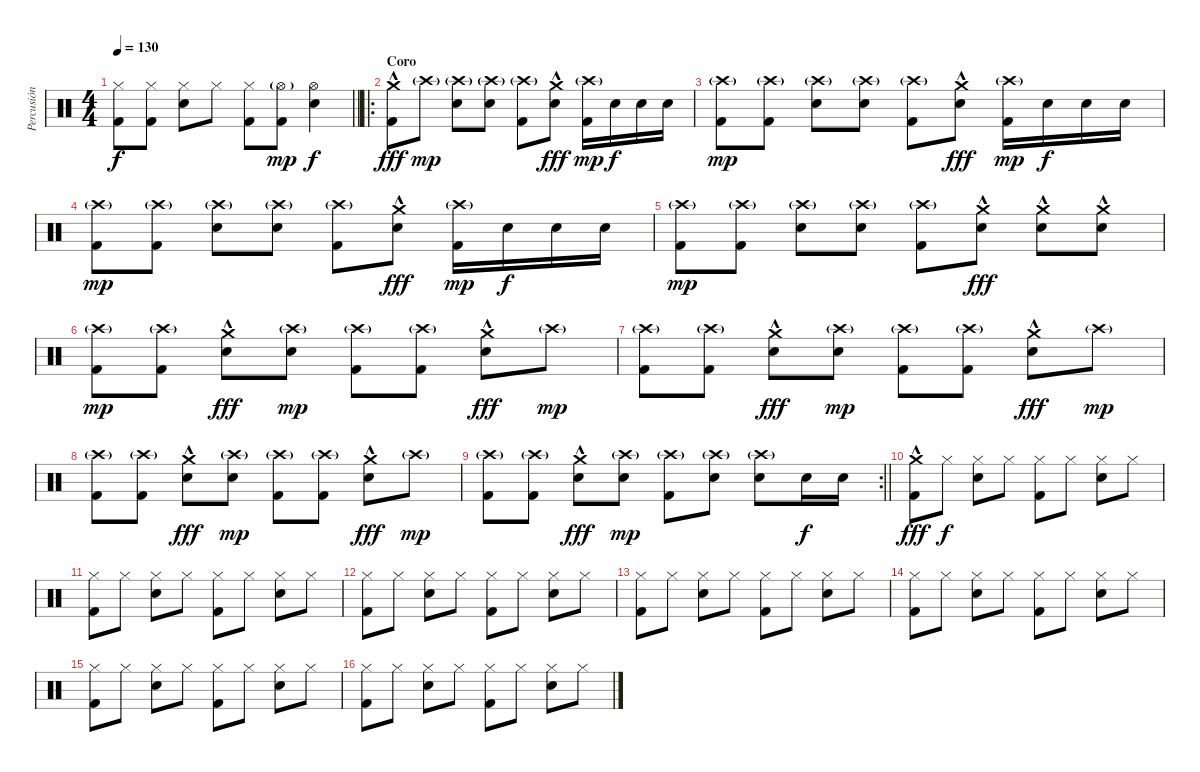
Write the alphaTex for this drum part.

\track ("Percusión" "Percusión") {instrument percussion}
\staff {score}
\articulation defaults
\ts (4 4)
\tempo 130
\clef neutral
\barLineRight lightlight
\ks c
("Hi-Hat (closed)" "Kick (hit) 2").8{dy f} ("Hi-Hat (closed)" "Kick (hit) 2").8 ("Hi-Hat (closed)" "Electric Snare (hit)").8 "Hi-Hat (closed)".8 ("Hi-Hat (closed)" "Kick (hit) 2").8 ("Hi-Hat (open)"{g} "Kick (hit) 2").8{dy mp} ("Hi-Hat (open)" "Electric Snare (hit)").4{dy f} |
\ro
\section ("" "Coro")
("Crash medium (hit)"{hac} "Kick (hit) 2").8{dy fff} "Crash high (hit)"{g}.8{dy mp} ("Crash high (hit)"{g} "Electric Snare (hit)").8 ("Crash high (hit)"{g} "Electric Snare (hit)").8 ("Crash high (hit)"{g} "Kick (hit) 2").8 ("Crash medium (hit)"{hac} "Electric Snare (hit)").8{dy fff} ("Crash high (hit)"{g} "Kick (hit) 2").16{dy mp} "Electric Snare (hit)".16{dy f} "Electric Snare (hit)".16 "Electric Snare (hit)".16 |
("Crash high (hit)"{g} "Kick (hit) 2").8{dy mp} ("Crash high (hit)"{g} "Kick (hit) 2").8 ("Crash high (hit)"{g} "Electric Snare (hit)").8 ("Crash high (hit)"{g} "Electric Snare (hit)").8 ("Crash high (hit)"{g} "Kick (hit) 2").8 ("Crash medium (hit)"{hac} "Electric Snare (hit)").8{dy fff} ("Crash high (hit)"{g} "Kick (hit) 2").16{dy mp} "Electric Snare (hit)".16{dy f} "Electric Snare (hit)".16 "Electric Snare (hit)".16 |
("Crash high (hit)"{g} "Kick (hit) 2").8{dy mp} ("Crash high (hit)"{g} "Kick (hit) 2").8 ("Crash high (hit)"{g} "Electric Snare (hit)").8 ("Crash high (hit)"{g} "Electric Snare (hit)").8 ("Crash high (hit)"{g} "Kick (hit) 2").8 ("Crash medium (hit)"{hac} "Electric Snare (hit)").8{dy fff} ("Crash high (hit)"{g} "Kick (hit) 2").16{dy mp} "Electric Snare (hit)".16{dy f} "Electric Snare (hit)".16 "Electric Snare (hit)".16 |
("Crash high (hit)"{g} "Kick (hit) 2").8{dy mp} ("Crash high (hit)"{g} "Kick (hit) 2").8 ("Crash high (hit)"{g} "Electric Snare (hit)").8 ("Crash high (hit)"{g} "Electric Snare (hit)").8 ("Crash high (hit)"{g} "Kick (hit) 2").8 ("Crash medium (hit)"{hac} "Electric Snare (hit)").8{dy fff} ("Crash medium (hit)"{hac} "Electric Snare (hit)").8 ("Crash medium (hit)"{hac} "Electric Snare (hit)").8 |
("Crash high (hit)"{g} "Kick (hit) 2").8{dy mp} ("Crash high (hit)"{g} "Kick (hit) 2").8 ("Crash medium (hit)"{hac} "Electric Snare (hit)").8{dy fff} ("Crash high (hit)"{g} "Electric Snare (hit)").8{dy mp} ("Crash high (hit)"{g} "Kick (hit) 2").8 ("Crash high (hit)"{g} "Kick (hit) 2").8 ("Crash medium (hit)"{hac} "Electric Snare (hit)").8{dy fff} "Crash high (hit)"{g}.8{dy mp} |
("Crash high (hit)"{g} "Kick (hit) 2").8 ("Crash high (hit)"{g} "Kick (hit) 2").8 ("Crash medium (hit)"{hac} "Electric Snare (hit)").8{dy fff} ("Crash high (hit)"{g} "Electric Snare (hit)").8{dy mp} ("Crash high (hit)"{g} "Kick (hit) 2").8 ("Crash high (hit)"{g} "Kick (hit) 2").8 ("Crash medium (hit)"{hac} "Electric Snare (hit)").8{dy fff} "Crash high (hit)"{g}.8{dy mp} |
("Crash high (hit)"{g} "Kick (hit) 2").8 ("Crash high (hit)"{g} "Kick (hit) 2").8 ("Crash medium (hit)"{hac} "Electric Snare (hit)").8{dy fff} ("Crash high (hit)"{g} "Electric Snare (hit)").8{dy mp} ("Crash high (hit)"{g} "Kick (hit) 2").8 ("Crash high (hit)"{g} "Kick (hit) 2").8 ("Crash medium (hit)"{hac} "Electric Snare (hit)").8{dy fff} "Crash high (hit)"{g}.8{dy mp} |
\rc 2
\barLineRight lightlight
("Crash high (hit)"{g} "Kick (hit) 2").8 ("Crash high (hit)"{g} "Kick (hit) 2").8 ("Crash medium (hit)"{hac} "Electric Snare (hit)").8{dy fff} ("Crash high (hit)"{g} "Electric Snare (hit)").8{dy mp} ("Crash high (hit)"{g} "Kick (hit) 2").8 ("Crash high (hit)"{g} "Electric Snare (hit)").8 ("Crash high (hit)"{g} "Electric Snare (hit)").8 "Electric Snare (hit)".16{dy f} "Electric Snare (hit)".16 |
\section ("" "")
("Crash medium (hit)"{hac} "Kick (hit) 2").8{dy fff} "Hi-Hat (closed)".8{dy f} ("Hi-Hat (closed)" "Electric Snare (hit)").8 "Hi-Hat (closed)".8 ("Hi-Hat (closed)" "Kick (hit) 2").8 "Hi-Hat (closed)".8 ("Hi-Hat (closed)" "Electric Snare (hit)").8 "Hi-Hat (closed)".8 |
("Hi-Hat (closed)" "Kick (hit) 2").8 "Hi-Hat (closed)".8 ("Hi-Hat (closed)" "Electric Snare (hit)").8 "Hi-Hat (closed)".8 ("Hi-Hat (closed)" "Kick (hit) 2").8 "Hi-Hat (closed)".8 ("Hi-Hat (closed)" "Electric Snare (hit)").8 "Hi-Hat (closed)".8 |
("Hi-Hat (closed)" "Kick (hit) 2").8 "Hi-Hat (closed)".8 ("Hi-Hat (closed)" "Electric Snare (hit)").8 "Hi-Hat (closed)".8 ("Hi-Hat (closed)" "Kick (hit) 2").8 "Hi-Hat (closed)".8 ("Hi-Hat (closed)" "Electric Snare (hit)").8 "Hi-Hat (closed)".8 |
("Hi-Hat (closed)" "Kick (hit) 2").8 "Hi-Hat (closed)".8 ("Hi-Hat (closed)" "Electric Snare (hit)").8 "Hi-Hat (closed)".8 ("Hi-Hat (closed)" "Kick (hit) 2").8 "Hi-Hat (closed)".8 ("Hi-Hat (closed)" "Electric Snare (hit)").8 "Hi-Hat (closed)".8 |
("Hi-Hat (closed)" "Kick (hit) 2").8 "Hi-Hat (closed)".8 ("Hi-Hat (closed)" "Electric Snare (hit)").8 "Hi-Hat (closed)".8 ("Hi-Hat (closed)" "Kick (hit) 2").8 "Hi-Hat (closed)".8 ("Hi-Hat (closed)" "Electric Snare (hit)").8 "Hi-Hat (closed)".8 |
("Hi-Hat (closed)" "Kick (hit) 2").8 "Hi-Hat (closed)".8 ("Hi-Hat (closed)" "Electric Snare (hit)").8 "Hi-Hat (closed)".8 ("Hi-Hat (closed)" "Kick (hit) 2").8 "Hi-Hat (closed)".8 ("Hi-Hat (closed)" "Electric Snare (hit)").8 "Hi-Hat (closed)".8 |
("Hi-Hat (closed)" "Kick (hit) 2").8 "Hi-Hat (closed)".8 ("Hi-Hat (closed)" "Electric Snare (hit)").8 "Hi-Hat (closed)".8 ("Hi-Hat (closed)" "Kick (hit) 2").8 "Hi-Hat (closed)".8 ("Hi-Hat (closed)" "Electric Snare (hit)").8 "Hi-Hat (closed)".8
